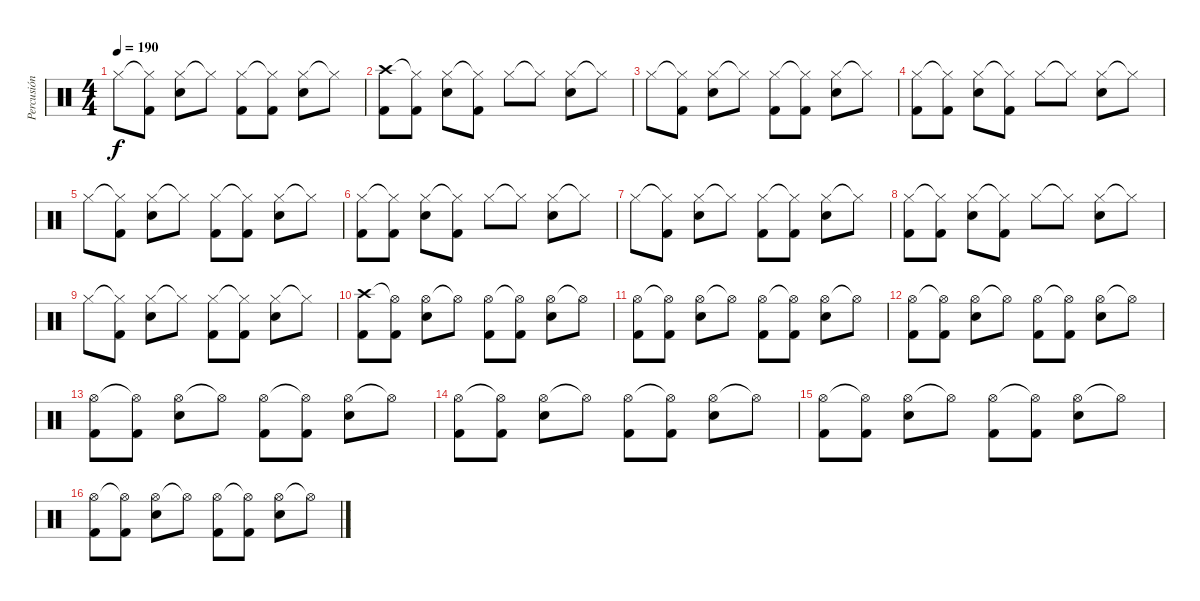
\track ("Percusión" "Percusión") {instrument percussion}
\staff {score}
\articulation defaults
\ts (4 4)
\tempo 190
\clef neutral
\ks c "Hi-Hat (closed)".8{dy f}
("Hi-Hat (closed)"{t} "Kick (hit) 2").8 ("Hi-Hat (closed)" "Snare (hit) 2").8 "Hi-Hat (closed)"{t}.8 ("Hi-Hat (closed)" "Kick (hit) 2").8 ("Hi-Hat (closed)"{t} "Kick (hit) 2").8 ("Hi-Hat (closed)" "Snare (hit) 2").8 "Hi-Hat (closed)"{t}.8 |
("Crash high (hit)" "Kick (hit) 2").8 ("Hi-Hat (closed)"{t} "Kick (hit) 2").8 ("Hi-Hat (closed)" "Snare (hit) 2").8 ("Hi-Hat (closed)"{t} "Kick (hit) 2").8 "Hi-Hat (closed)".8 "Hi-Hat (closed)"{t}.8 ("Hi-Hat (closed)" "Snare (hit) 2").8 "Hi-Hat (closed)"{t}.8 |
"Hi-Hat (closed)".8 ("Hi-Hat (closed)"{t} "Kick (hit) 2").8 ("Hi-Hat (closed)" "Snare (hit) 2").8 "Hi-Hat (closed)"{t}.8 ("Hi-Hat (closed)" "Kick (hit) 2").8 ("Hi-Hat (closed)"{t} "Kick (hit) 2").8 ("Hi-Hat (closed)" "Snare (hit) 2").8 "Hi-Hat (closed)"{t}.8 |
("Hi-Hat (closed)" "Kick (hit) 2").8 ("Hi-Hat (closed)"{t} "Kick (hit) 2").8 ("Hi-Hat (closed)" "Snare (hit) 2").8 ("Hi-Hat (closed)"{t} "Kick (hit) 2").8 "Hi-Hat (closed)".8 "Hi-Hat (closed)"{t}.8 ("Hi-Hat (closed)" "Snare (hit) 2").8 "Hi-Hat (closed)"{t}.8 |
"Hi-Hat (closed)".8 ("Hi-Hat (closed)"{t} "Kick (hit) 2").8 ("Hi-Hat (closed)" "Snare (hit) 2").8 "Hi-Hat (closed)"{t}.8 ("Hi-Hat (closed)" "Kick (hit) 2").8 ("Hi-Hat (closed)"{t} "Kick (hit) 2").8 ("Hi-Hat (closed)" "Snare (hit) 2").8 "Hi-Hat (closed)"{t}.8 |
("Hi-Hat (closed)" "Kick (hit) 2").8 ("Hi-Hat (closed)"{t} "Kick (hit) 2").8 ("Hi-Hat (closed)" "Snare (hit) 2").8 ("Hi-Hat (closed)"{t} "Kick (hit) 2").8 "Hi-Hat (closed)".8 "Hi-Hat (closed)"{t}.8 ("Hi-Hat (closed)" "Snare (hit) 2").8 "Hi-Hat (closed)"{t}.8 |
"Hi-Hat (closed)".8 ("Hi-Hat (closed)"{t} "Kick (hit) 2").8 ("Hi-Hat (closed)" "Snare (hit) 2").8 "Hi-Hat (closed)"{t}.8 ("Hi-Hat (closed)" "Kick (hit) 2").8 ("Hi-Hat (closed)"{t} "Kick (hit) 2").8 ("Hi-Hat (closed)" "Snare (hit) 2").8 "Hi-Hat (closed)"{t}.8 |
("Hi-Hat (closed)" "Kick (hit) 2").8 ("Hi-Hat (closed)"{t} "Kick (hit) 2").8 ("Hi-Hat (closed)" "Snare (hit) 2").8 ("Hi-Hat (closed)"{t} "Kick (hit) 2").8 "Hi-Hat (closed)".8 "Hi-Hat (closed)"{t}.8 ("Hi-Hat (closed)" "Snare (hit) 2").8 "Hi-Hat (closed)"{t}.8 |
"Hi-Hat (closed)".8 ("Hi-Hat (closed)"{t} "Kick (hit) 2").8 ("Hi-Hat (closed)" "Snare (hit) 2").8 "Hi-Hat (closed)"{t}.8 ("Hi-Hat (closed)" "Kick (hit) 2").8 ("Hi-Hat (closed)"{t} "Kick (hit) 2").8 ("Hi-Hat (closed)" "Snare (hit) 2").8 "Hi-Hat (closed)"{t}.8 |
("Crash high (hit)" "Kick (hit) 2").8 ("Hi-Hat (open)"{t} "Kick (hit) 2").8 ("Hi-Hat (open)" "Snare (hit) 2").8 "Hi-Hat (open)"{t}.8 ("Hi-Hat (open)" "Kick (hit) 2").8 ("Hi-Hat (open)"{t} "Kick (hit) 2").8 ("Hi-Hat (open)" "Snare (hit) 2").8 "Hi-Hat (open)"{t}.8 |
("Hi-Hat (open)" "Kick (hit) 2").8 ("Hi-Hat (open)"{t} "Kick (hit) 2").8 ("Hi-Hat (open)" "Snare (hit) 2").8 "Hi-Hat (open)"{t}.8 ("Hi-Hat (open)" "Kick (hit) 2").8 ("Hi-Hat (open)"{t} "Kick (hit) 2").8 ("Hi-Hat (open)" "Snare (hit) 2").8 "Hi-Hat (open)"{t}.8 |
("Hi-Hat (open)" "Kick (hit) 2").8 ("Hi-Hat (open)"{t} "Kick (hit) 2").8 ("Hi-Hat (open)" "Snare (hit) 2").8 "Hi-Hat (open)"{t}.8 ("Hi-Hat (open)" "Kick (hit) 2").8 ("Hi-Hat (open)"{t} "Kick (hit) 2").8 ("Hi-Hat (open)" "Snare (hit) 2").8 "Hi-Hat (open)"{t}.8 |
("Hi-Hat (open)" "Kick (hit) 2").8 ("Hi-Hat (open)"{t} "Kick (hit) 2").8 ("Hi-Hat (open)" "Snare (hit) 2").8 "Hi-Hat (open)"{t}.8 ("Hi-Hat (open)" "Kick (hit) 2").8 ("Hi-Hat (open)"{t} "Kick (hit) 2").8 ("Hi-Hat (open)" "Snare (hit) 2").8 "Hi-Hat (open)"{t}.8 |
("Hi-Hat (open)" "Kick (hit) 2").8 ("Hi-Hat (open)"{t} "Kick (hit) 2").8 ("Hi-Hat (open)" "Snare (hit) 2").8 "Hi-Hat (open)"{t}.8 ("Hi-Hat (open)" "Kick (hit) 2").8 ("Hi-Hat (open)"{t} "Kick (hit) 2").8 ("Hi-Hat (open)" "Snare (hit) 2").8 "Hi-Hat (open)"{t}.8 |
("Hi-Hat (open)" "Kick (hit) 2").8 ("Hi-Hat (open)"{t} "Kick (hit) 2").8 ("Hi-Hat (open)" "Snare (hit) 2").8 "Hi-Hat (open)"{t}.8 ("Hi-Hat (open)" "Kick (hit) 2").8 ("Hi-Hat (open)"{t} "Kick (hit) 2").8 ("Hi-Hat (open)" "Snare (hit) 2").8 "Hi-Hat (open)"{t}.8 |
("Hi-Hat (open)" "Kick (hit) 2").8 ("Hi-Hat (open)"{t} "Kick (hit) 2").8 ("Hi-Hat (open)" "Snare (hit) 2").8 "Hi-Hat (open)"{t}.8 ("Hi-Hat (open)" "Kick (hit) 2").8 ("Hi-Hat (open)"{t} "Kick (hit) 2").8 ("Hi-Hat (open)" "Snare (hit) 2").8 "Hi-Hat (open)"{t}.8
